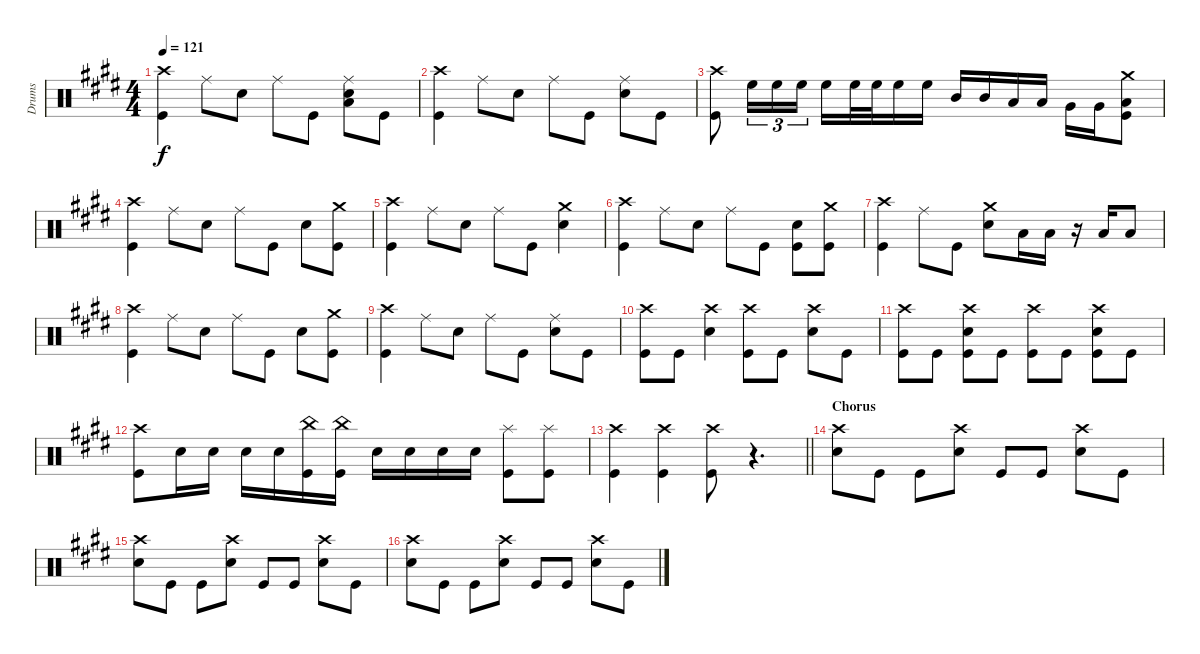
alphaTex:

\track ("Drums" "Drums") {instrument percussion}
\staff {score}
\articulation defaults
\ts (4 4)
\tempo 121
\clef neutral
\ks e
("Crash high (hit)" "Kick (hit)").4{dy f} "Ride (middle)".8 "Snare (hit) 2".8 "Ride (middle)".8 "Kick (hit)".8 ("Ride (middle)" "Low Floor Tom (hit)" "Snare (hit) 2").8 "Kick (hit)".8 |
("Crash high (hit)" "Kick (hit)").4 "Ride (middle)".8 "Snare (hit) 2".8 "Ride (middle)".8 "Kick (hit)".8 ("Ride (middle)" "Snare (hit) 2").8 "Kick (hit)".8 |
("Crash high (hit)" "Kick (hit)").8 "High Floor Tom (hit)".16{tu (3 2)} "High Floor Tom (hit)".16{tu (3 2)} "High Floor Tom (hit)".16{tu (3 2)} "High Floor Tom (hit)".16 "High Floor Tom (hit)".32 "High Floor Tom (hit)".32 "High Floor Tom (hit)".16 "High Floor Tom (hit)".16 "Mid Tom (hit)".16 "Mid Tom (hit)".16 "Low Tom (hit)".16 "Low Tom (hit)".16 "Very Low Tom (hit)".16 "Very Low Tom (hit)".16 ("Crash medium (hit)" "Low Floor Tom (hit)" "Kick (hit)").8 |
("Crash high (hit)" "Kick (hit)").4 "Ride (middle)".8 "Snare (hit) 2".8 "Ride (middle)".8 "Kick (hit)".8 "Snare (hit) 2".8 ("Crash medium (hit)" "Kick (hit)").8 |
("Crash high (hit)" "Kick (hit)").4 "Ride (middle)".8 "Snare (hit) 2".8 "Ride (middle)".8 "Kick (hit)".8 ("Crash medium (hit)" "Snare (hit) 2").4 |
("Crash high (hit)" "Kick (hit)").4 "Ride (middle)".8 "Snare (hit) 2".8 "Ride (middle)".8 "Kick (hit)".8 ("Snare (hit) 2" "Kick (hit)").8 ("Crash medium (hit)" "Kick (hit)").8 |
("Crash high (hit)" "Kick (hit)").4 "Ride (middle)".8 "Kick (hit)".8 ("Crash medium (hit)" "Snare (hit) 2").8 "Low Tom (hit)".16 "Low Tom (hit)".16 r.16 "Low Floor Tom (hit)".16 "Low Floor Tom (hit)".8 |
("Crash high (hit)" "Kick (hit)").4 "Ride (middle)".8 "Snare (hit) 2".8 "Ride (middle)".8 "Kick (hit)".8 "Snare (hit) 2".8 ("Crash medium (hit)" "Kick (hit)").8 |
("Crash high (hit)" "Kick (hit)").4 "Ride (middle)".8 "Snare (hit) 2".8 "Ride (middle)".8 "Kick (hit)".8 ("Ride (middle)" "Snare (hit) 2").8 "Kick (hit)".8 |
("Crash high (hit)" "Kick (hit)").8 "Kick (hit)".8 ("Crash high (hit)" "Snare (hit) 2").4 ("Crash high (hit)" "Kick (hit)").8 "Kick (hit)".8 ("Crash high (hit)" "Snare (hit) 2").8 "Kick (hit)".8 |
("Crash high (hit)" "Kick (hit)").8 "Kick (hit)".8 ("Crash high (hit)" "Snare (hit) 2" "Kick (hit)").8 "Kick (hit)".8 ("Crash high (hit)" "Kick (hit)").8 "Kick (hit)".8 ("Crash high (hit)" "Snare (hit) 2" "Kick (hit)").8 "Kick (hit)".8 |
("Crash high (hit)" "Kick (hit)").8 "Snare (hit) 2".16 "Snare (hit) 2".16 "Snare (hit) 2".16 "Snare (hit) 2".16 ("China (hit)" "Kick (hit)").16 ("China (hit)" "Kick (hit)").16 "Snare (hit) 2".16 "Snare (hit) 2".16 "Snare (hit) 2".16 "Snare (hit) 2".16 ("Splash (hit)" "Kick (hit)").8 ("Splash (hit)" "Kick (hit)").8 |
\barLineRight lightlight
("Crash high (hit)" "Kick (hit)").4 ("Crash high (hit)" "Kick (hit)").4 ("Crash high (hit)" "Kick (hit)").8 r.4{d volume 0} |
\section ("" "Chorus")
("Crash high (hit)" "Snare (hit) 2").8{volume 13} "Kick (hit)".8 "Kick (hit)".8 ("Crash high (hit)" "Snare (hit) 2").8 "Kick (hit)".8 "Kick (hit)".8 ("Crash high (hit)" "Snare (hit) 2").8 "Kick (hit)".8 |
("Crash high (hit)" "Snare (hit) 2").8 "Kick (hit)".8 "Kick (hit)".8 ("Crash high (hit)" "Snare (hit) 2").8 "Kick (hit)".8 "Kick (hit)".8 ("Crash high (hit)" "Snare (hit) 2").8 "Kick (hit)".8 |
("Crash high (hit)" "Snare (hit) 2").8 "Kick (hit)".8 "Kick (hit)".8 ("Crash high (hit)" "Snare (hit) 2").8 "Kick (hit)".8 "Kick (hit)".8 ("Crash high (hit)" "Snare (hit) 2").8 "Kick (hit)".8
